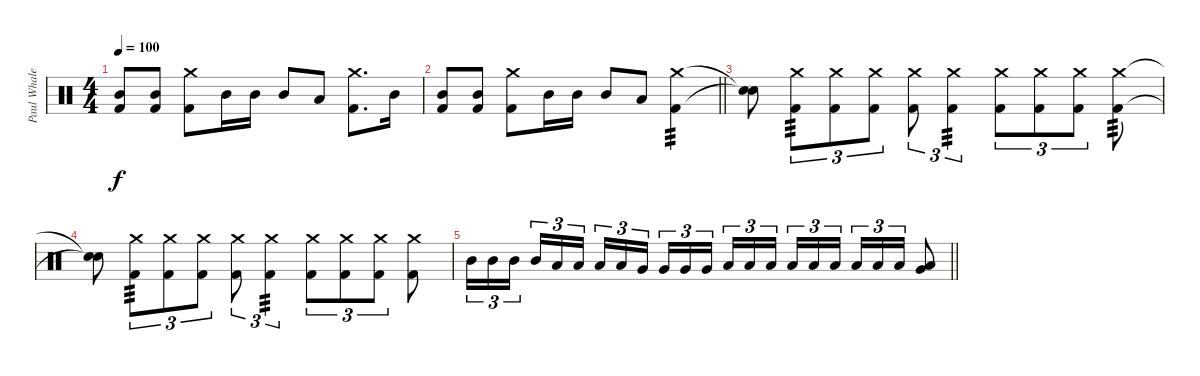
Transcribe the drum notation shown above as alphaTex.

\track ("Paul Whaley" "Paul Whale") {instrument percussion}
\staff {score}
\articulation defaults
\ts (4 4)
\tempo 100
\clef neutral
\ks c
("Kick (hit) 2" "Mid Tom (hit)").8{dy f} ("Kick (hit) 2" "Mid Tom (hit)").8 ("Kick (hit) 2" "Crash medium (hit)").8 "Mid Tom (hit)".16 "Mid Tom (hit)".16 "Mid Tom (hit)".8 "Low Tom (hit)".8 ("Kick (hit) 2" "Crash medium (hit)").8{d} "Mid Tom (hit)".16 |
\barLineRight lightlight
("Kick (hit) 2" "Mid Tom (hit)").8 ("Kick (hit) 2" "Mid Tom (hit)").8 ("Kick (hit) 2" "Crash medium (hit)").8 "Mid Tom (hit)".16 "Mid Tom (hit)".16 "Mid Tom (hit)".8 "Low Tom (hit)".8 ("Kick (hit) 2" "Crash medium (hit)").4{tp 3} |
("Snare (hit)"{t} "Snare (hit)"{t}).8 ("Kick (hit) 2" "Crash medium (hit)").8{tu (3 2) tp 3} ("Kick (hit) 2" "Crash medium (hit)").8{tu (3 2)} ("Kick (hit) 2" "Crash medium (hit)").8{tu (3 2)} ("Kick (hit) 2" "Crash medium (hit)").8{tu (3 2)} ("Kick (hit) 2" "Crash medium (hit)").4{tu (3 2) tp 3} ("Kick (hit) 2" "Crash medium (hit)").8{tu (3 2)} ("Kick (hit) 2" "Crash medium (hit)").8{tu (3 2)} ("Kick (hit) 2" "Crash medium (hit)").8{tu (3 2)} ("Kick (hit) 2" "Crash medium (hit)").8{tp 3} |
("Snare (hit)"{t} "Snare (hit)"{t}).8 ("Kick (hit) 2" "Crash medium (hit)").8{tu (3 2) tp 3} ("Kick (hit) 2" "Crash medium (hit)").8{tu (3 2)} ("Kick (hit) 2" "Crash medium (hit)").8{tu (3 2)} ("Kick (hit) 2" "Crash medium (hit)").8{tu (3 2)} ("Kick (hit) 2" "Crash medium (hit)").4{tu (3 2) tp 3} ("Kick (hit) 2" "Crash medium (hit)").8{tu (3 2)} ("Kick (hit) 2" "Crash medium (hit)").8{tu (3 2)} ("Kick (hit) 2" "Crash medium (hit)").8{tu (3 2)} ("Kick (hit) 2" "Crash medium (hit)").8 |
\barLineRight lightlight "Mid Tom (hit)".16{tu (3 2)} "Mid Tom (hit)".16{tu (3 2)} "Mid Tom (hit)".16{tu (3 2) beam splitsecondary} "Mid Tom (hit)".16{tu (3 2)} "Low Tom (hit)".16{tu (3 2)} "Low Tom (hit)".16{tu (3 2)} "Low Tom (hit)".16{tu (3 2)} "Low Tom (hit)".16{tu (3 2)} "Very Low Tom (hit)".16{tu (3 2) beam splitsecondary} "Very Low Tom (hit)".16{tu (3 2)} "Very Low Tom (hit)".16{tu (3 2)} "Very Low Tom (hit)".16{tu (3 2)} "Low Floor Tom (hit)".16{tu (3 2)} "Low Floor Tom (hit)".16{tu (3 2)} "Low Floor Tom (hit)".16{tu (3 2) beam splitsecondary} "Low Floor Tom (hit)".16{tu (3 2)} "Low Floor Tom (hit)".16{tu (3 2)} "Low Floor Tom (hit)".16{tu (3 2)} "Low Floor Tom (hit)".16{tu (3 2)} "Low Floor Tom (hit)".16{tu (3 2)} "Low Floor Tom (hit)".16{tu (3 2)}
("Very Low Tom (hit)" "Low Floor Tom (hit)").8
